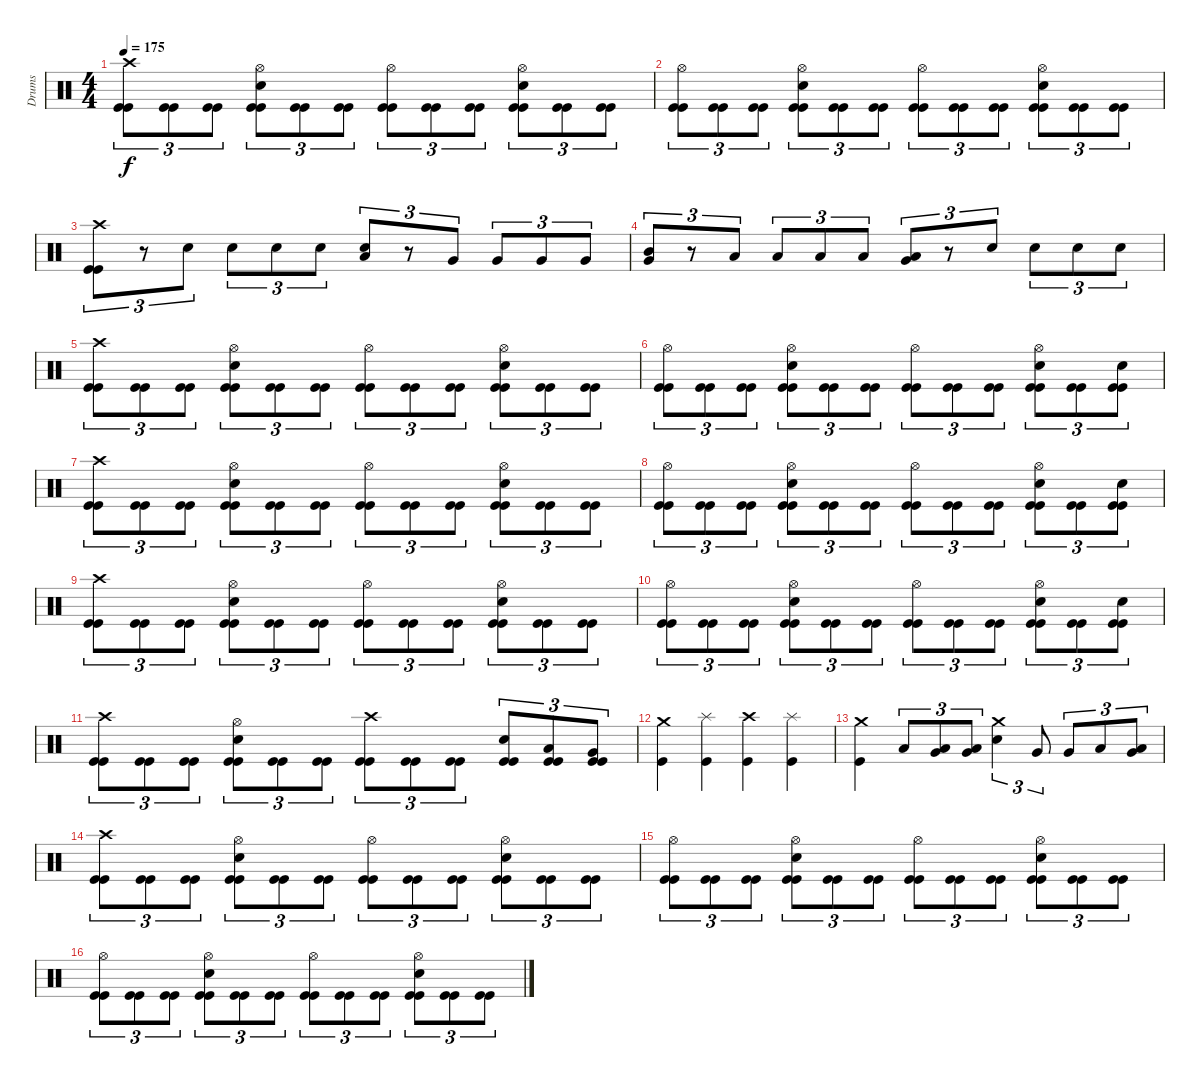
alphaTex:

\track ("Drums" "Drums") {instrument percussion}
\staff {score}
\articulation defaults
\ts (4 4)
\tempo 175
\clef neutral
\ks c
("Kick (hit)" "Kick (hit)" "Crash high (hit)").8{tu (3 2) dy f} ("Kick (hit)" "Kick (hit)").8{tu (3 2)} ("Kick (hit)" "Kick (hit)").8{tu (3 2)} ("Kick (hit)" "Kick (hit)" "Snare (hit) 2" "Hi-Hat (open)").8{tu (3 2)} ("Kick (hit)" "Kick (hit)").8{tu (3 2)} ("Kick (hit)" "Kick (hit)").8{tu (3 2)} ("Kick (hit)" "Kick (hit)" "Hi-Hat (open)").8{tu (3 2)} ("Kick (hit)" "Kick (hit)").8{tu (3 2)} ("Kick (hit)" "Kick (hit)").8{tu (3 2)} ("Kick (hit)" "Kick (hit)" "Snare (hit) 2" "Hi-Hat (open)").8{tu (3 2)} ("Kick (hit)" "Kick (hit)").8{tu (3 2)} ("Kick (hit)" "Kick (hit)").8{tu (3 2)} |
("Kick (hit)" "Kick (hit)" "Hi-Hat (open)").8{tu (3 2)} ("Kick (hit)" "Kick (hit)").8{tu (3 2)} ("Kick (hit)" "Kick (hit)").8{tu (3 2)} ("Kick (hit)" "Kick (hit)" "Snare (hit) 2" "Hi-Hat (open)").8{tu (3 2)} ("Kick (hit)" "Kick (hit)").8{tu (3 2)} ("Kick (hit)" "Kick (hit)").8{tu (3 2)} ("Kick (hit)" "Kick (hit)" "Hi-Hat (open)").8{tu (3 2)} ("Kick (hit)" "Kick (hit)").8{tu (3 2)} ("Kick (hit)" "Kick (hit)").8{tu (3 2)} ("Kick (hit)" "Kick (hit)" "Snare (hit) 2" "Hi-Hat (open)").8{tu (3 2)} ("Kick (hit)" "Kick (hit)").8{tu (3 2)} ("Kick (hit)" "Kick (hit)").8{tu (3 2)} |
("Kick (hit)" "Kick (hit)" "Crash high (hit)").8{tu (3 2)} r.8{tu (3 2)} "Snare (hit) 2".8{tu (3 2)} "Snare (hit) 2".8{tu (3 2)} "Snare (hit) 2".8{tu (3 2)} "Snare (hit) 2".8{tu (3 2)} ("Snare (hit) 2" "Low Tom (hit)").8{tu (3 2)} r.8{tu (3 2)} "Very Low Tom (hit)".8{tu (3 2)} "Very Low Tom (hit)".8{tu (3 2)} "Very Low Tom (hit)".8{tu (3 2)} "Very Low Tom (hit)".8{tu (3 2)} |
("Very Low Tom (hit)" "Mid Tom (hit)").8{tu (3 2)} r.8{tu (3 2)} "Low Floor Tom (hit)".8{tu (3 2)} "Low Floor Tom (hit)".8{tu (3 2)} "Low Floor Tom (hit)".8{tu (3 2)} "Low Floor Tom (hit)".8{tu (3 2)} ("Low Floor Tom (hit)" "Very Low Tom (hit)").8{tu (3 2)} r.8{tu (3 2)} "Snare (hit) 2".8{tu (3 2)} "Snare (hit) 2".8{tu (3 2)} "Snare (hit) 2".8{tu (3 2)} "Snare (hit) 2".8{tu (3 2)} |
("Kick (hit)" "Kick (hit)" "Crash high (hit)").8{tu (3 2)} ("Kick (hit)" "Kick (hit)").8{tu (3 2)} ("Kick (hit)" "Kick (hit)").8{tu (3 2)} ("Kick (hit)" "Kick (hit)" "Snare (hit) 2" "Hi-Hat (open)").8{tu (3 2)} ("Kick (hit)" "Kick (hit)").8{tu (3 2)} ("Kick (hit)" "Kick (hit)").8{tu (3 2)} ("Kick (hit)" "Kick (hit)" "Hi-Hat (open)").8{tu (3 2)} ("Kick (hit)" "Kick (hit)").8{tu (3 2)} ("Kick (hit)" "Kick (hit)").8{tu (3 2)} ("Kick (hit)" "Kick (hit)" "Snare (hit) 2" "Hi-Hat (open)").8{tu (3 2)} ("Kick (hit)" "Kick (hit)").8{tu (3 2)} ("Kick (hit)" "Kick (hit)").8{tu (3 2)} |
("Kick (hit)" "Kick (hit)" "Hi-Hat (open)").8{tu (3 2)} ("Kick (hit)" "Kick (hit)").8{tu (3 2)} ("Kick (hit)" "Kick (hit)").8{tu (3 2)} ("Kick (hit)" "Kick (hit)" "Snare (hit) 2" "Hi-Hat (open)").8{tu (3 2)} ("Kick (hit)" "Kick (hit)").8{tu (3 2)} ("Kick (hit)" "Kick (hit)").8{tu (3 2)} ("Kick (hit)" "Kick (hit)" "Hi-Hat (open)").8{tu (3 2)} ("Kick (hit)" "Kick (hit)").8{tu (3 2)} ("Kick (hit)" "Kick (hit)").8{tu (3 2)} ("Kick (hit)" "Kick (hit)" "Snare (hit) 2" "Hi-Hat (open)").8{tu (3 2)} ("Kick (hit)" "Kick (hit)").8{tu (3 2)} ("Kick (hit)" "Kick (hit)" "Snare (hit) 2").8{tu (3 2)} |
("Kick (hit)" "Kick (hit)" "Crash high (hit)").8{tu (3 2)} ("Kick (hit)" "Kick (hit)").8{tu (3 2)} ("Kick (hit)" "Kick (hit)").8{tu (3 2)} ("Kick (hit)" "Kick (hit)" "Snare (hit) 2" "Hi-Hat (open)").8{tu (3 2)} ("Kick (hit)" "Kick (hit)").8{tu (3 2)} ("Kick (hit)" "Kick (hit)").8{tu (3 2)} ("Kick (hit)" "Kick (hit)" "Hi-Hat (open)").8{tu (3 2)} ("Kick (hit)" "Kick (hit)").8{tu (3 2)} ("Kick (hit)" "Kick (hit)").8{tu (3 2)} ("Kick (hit)" "Kick (hit)" "Snare (hit) 2" "Hi-Hat (open)").8{tu (3 2)} ("Kick (hit)" "Kick (hit)").8{tu (3 2)} ("Kick (hit)" "Kick (hit)").8{tu (3 2)} |
("Kick (hit)" "Kick (hit)" "Hi-Hat (open)").8{tu (3 2)} ("Kick (hit)" "Kick (hit)").8{tu (3 2)} ("Kick (hit)" "Kick (hit)").8{tu (3 2)} ("Kick (hit)" "Kick (hit)" "Snare (hit) 2" "Hi-Hat (open)").8{tu (3 2)} ("Kick (hit)" "Kick (hit)").8{tu (3 2)} ("Kick (hit)" "Kick (hit)").8{tu (3 2)} ("Kick (hit)" "Kick (hit)" "Hi-Hat (open)").8{tu (3 2)} ("Kick (hit)" "Kick (hit)").8{tu (3 2)} ("Kick (hit)" "Kick (hit)").8{tu (3 2)} ("Kick (hit)" "Kick (hit)" "Snare (hit) 2" "Hi-Hat (open)").8{tu (3 2)} ("Kick (hit)" "Kick (hit)").8{tu (3 2)} ("Kick (hit)" "Kick (hit)" "Snare (hit) 2").8{tu (3 2)} |
("Kick (hit)" "Kick (hit)" "Crash high (hit)").8{tu (3 2)} ("Kick (hit)" "Kick (hit)").8{tu (3 2)} ("Kick (hit)" "Kick (hit)").8{tu (3 2)} ("Kick (hit)" "Kick (hit)" "Snare (hit) 2" "Hi-Hat (open)").8{tu (3 2)} ("Kick (hit)" "Kick (hit)").8{tu (3 2)} ("Kick (hit)" "Kick (hit)").8{tu (3 2)} ("Kick (hit)" "Kick (hit)" "Hi-Hat (open)").8{tu (3 2)} ("Kick (hit)" "Kick (hit)").8{tu (3 2)} ("Kick (hit)" "Kick (hit)").8{tu (3 2)} ("Kick (hit)" "Kick (hit)" "Snare (hit) 2" "Hi-Hat (open)").8{tu (3 2)} ("Kick (hit)" "Kick (hit)").8{tu (3 2)} ("Kick (hit)" "Kick (hit)").8{tu (3 2)} |
("Kick (hit)" "Kick (hit)" "Hi-Hat (open)").8{tu (3 2)} ("Kick (hit)" "Kick (hit)").8{tu (3 2)} ("Kick (hit)" "Kick (hit)").8{tu (3 2)} ("Kick (hit)" "Kick (hit)" "Snare (hit) 2" "Hi-Hat (open)").8{tu (3 2)} ("Kick (hit)" "Kick (hit)").8{tu (3 2)} ("Kick (hit)" "Kick (hit)").8{tu (3 2)} ("Kick (hit)" "Kick (hit)" "Hi-Hat (open)").8{tu (3 2)} ("Kick (hit)" "Kick (hit)").8{tu (3 2)} ("Kick (hit)" "Kick (hit)").8{tu (3 2)} ("Kick (hit)" "Kick (hit)" "Snare (hit) 2" "Hi-Hat (open)").8{tu (3 2)} ("Kick (hit)" "Kick (hit)").8{tu (3 2)} ("Kick (hit)" "Kick (hit)" "Snare (hit) 2").8{tu (3 2)} |
("Kick (hit)" "Kick (hit)" "Crash high (hit)").8{tu (3 2)} ("Kick (hit)" "Kick (hit)").8{tu (3 2)} ("Kick (hit)" "Kick (hit)").8{tu (3 2)} ("Kick (hit)" "Kick (hit)" "Snare (hit) 2" "Hi-Hat (open)").8{tu (3 2)} ("Kick (hit)" "Kick (hit)").8{tu (3 2)} ("Kick (hit)" "Kick (hit)").8{tu (3 2)} ("Kick (hit)" "Kick (hit)" "Crash high (hit)").8{tu (3 2)} ("Kick (hit)" "Kick (hit)").8{tu (3 2)} ("Kick (hit)" "Kick (hit)").8{tu (3 2)} ("Kick (hit)" "Kick (hit)" "Snare (hit) 2").8{tu (3 2)} ("Kick (hit)" "Kick (hit)" "Low Tom (hit)").8{tu (3 2)} ("Kick (hit)" "Kick (hit)" "Very Low Tom (hit)").8{tu (3 2)} |
("Kick (hit)" "Crash medium (hit)").4 ("Kick (hit)" "Splash (hit)").4 ("Kick (hit)" "Crash high (hit)").4 ("Kick (hit)" "Splash (hit)").4 |
("Kick (hit)" "Crash medium (hit)").4 "Low Tom (hit)".8{tu (3 2)} ("Very Low Tom (hit)" "Low Tom (hit)").8{tu (3 2)} ("Very Low Tom (hit)" "Low Tom (hit)").8{tu (3 2)} ("Electric Snare (hit)" "Crash medium (hit)").4{tu (3 2)} "Very Low Tom (hit)".8{tu (3 2)} "Very Low Tom (hit)".8{tu (3 2)} "Low Tom (hit)".8{tu (3 2)} ("Low Tom (hit)" "Very Low Tom (hit)").8{tu (3 2)} |
("Kick (hit)" "Kick (hit)" "Crash high (hit)").8{tu (3 2)} ("Kick (hit)" "Kick (hit)").8{tu (3 2)} ("Kick (hit)" "Kick (hit)").8{tu (3 2)} ("Kick (hit)" "Kick (hit)" "Snare (hit) 2" "Hi-Hat (open)").8{tu (3 2)} ("Kick (hit)" "Kick (hit)").8{tu (3 2)} ("Kick (hit)" "Kick (hit)").8{tu (3 2)} ("Kick (hit)" "Kick (hit)" "Hi-Hat (open)").8{tu (3 2)} ("Kick (hit)" "Kick (hit)").8{tu (3 2)} ("Kick (hit)" "Kick (hit)").8{tu (3 2)} ("Kick (hit)" "Kick (hit)" "Snare (hit) 2" "Hi-Hat (open)").8{tu (3 2)} ("Kick (hit)" "Kick (hit)").8{tu (3 2)} ("Kick (hit)" "Kick (hit)").8{tu (3 2)} |
("Kick (hit)" "Kick (hit)" "Hi-Hat (open)").8{tu (3 2)} ("Kick (hit)" "Kick (hit)").8{tu (3 2)} ("Kick (hit)" "Kick (hit)").8{tu (3 2)} ("Kick (hit)" "Kick (hit)" "Snare (hit) 2" "Hi-Hat (open)").8{tu (3 2)} ("Kick (hit)" "Kick (hit)").8{tu (3 2)} ("Kick (hit)" "Kick (hit)").8{tu (3 2)} ("Kick (hit)" "Kick (hit)" "Hi-Hat (open)").8{tu (3 2)} ("Kick (hit)" "Kick (hit)").8{tu (3 2)} ("Kick (hit)" "Kick (hit)").8{tu (3 2)} ("Kick (hit)" "Kick (hit)" "Snare (hit) 2" "Hi-Hat (open)").8{tu (3 2)} ("Kick (hit)" "Kick (hit)").8{tu (3 2)} ("Kick (hit)" "Kick (hit)").8{tu (3 2)} |
("Kick (hit)" "Kick (hit)" "Hi-Hat (open)").8{tu (3 2)} ("Kick (hit)" "Kick (hit)").8{tu (3 2)} ("Kick (hit)" "Kick (hit)").8{tu (3 2)} ("Kick (hit)" "Kick (hit)" "Snare (hit) 2" "Hi-Hat (open)").8{tu (3 2)} ("Kick (hit)" "Kick (hit)").8{tu (3 2)} ("Kick (hit)" "Kick (hit)").8{tu (3 2)} ("Kick (hit)" "Kick (hit)" "Hi-Hat (open)").8{tu (3 2)} ("Kick (hit)" "Kick (hit)").8{tu (3 2)} ("Kick (hit)" "Kick (hit)").8{tu (3 2)} ("Kick (hit)" "Kick (hit)" "Snare (hit) 2" "Hi-Hat (open)").8{tu (3 2)} ("Kick (hit)" "Kick (hit)").8{tu (3 2)} ("Kick (hit)" "Kick (hit)").8{tu (3 2)}
